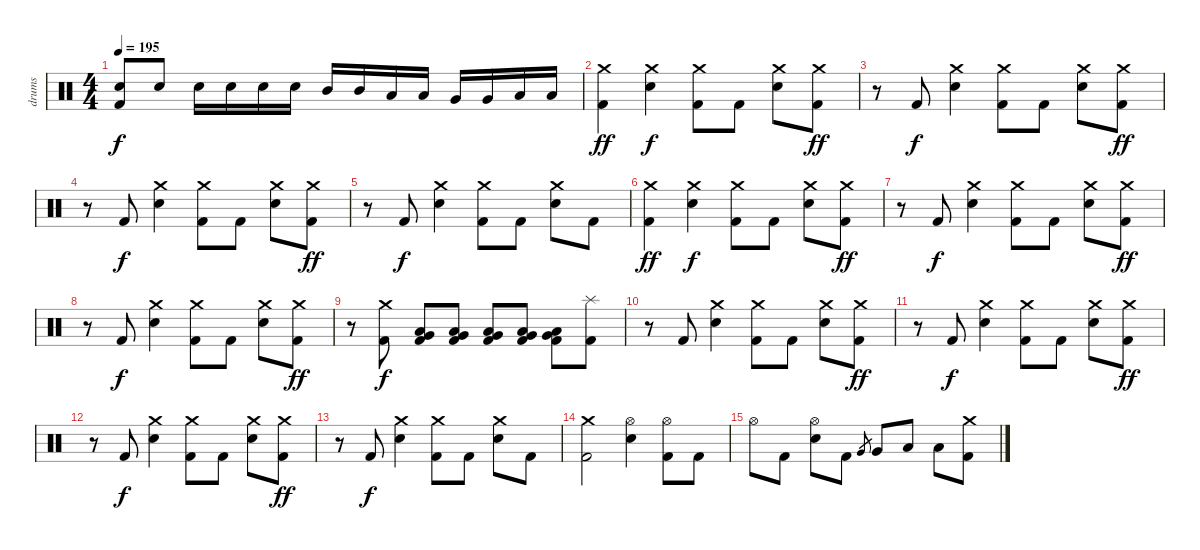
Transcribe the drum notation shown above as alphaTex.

\track ("drums" "drums") {instrument percussion}
\staff {score}
\articulation defaults
\ts (4 4)
\tempo 195
\clef neutral
\ks c
("Electric Snare (hit)" "Kick (hit) 2").8{dy f} "Electric Snare (hit)".8 "Electric Snare (hit)".16 "Electric Snare (hit)".16 "Electric Snare (hit)".16 "Electric Snare (hit)".16 "Mid Tom (hit)".16 "Mid Tom (hit)".16 "Low Tom (hit)".16 "Low Tom (hit)".16 "Very Low Tom (hit)".16 "Very Low Tom (hit)".16 "Low Floor Tom (hit)".16 "Low Floor Tom (hit)".16 |
("Crash medium (hit)" "Kick (hit) 2").4{dy ff} ("Crash medium (hit)" "Electric Snare (hit)").4{dy f} ("Crash medium (hit)" "Kick (hit) 2").8 "Kick (hit) 2".8 ("Crash medium (hit)" "Electric Snare (hit)").8 ("Crash medium (hit)" "Kick (hit) 2").8{dy ff} |
r.8 "Kick (hit) 2".8{dy f} ("Crash medium (hit)" "Electric Snare (hit)").4 ("Crash medium (hit)" "Kick (hit) 2").8 "Kick (hit) 2".8 ("Crash medium (hit)" "Electric Snare (hit)").8 ("Crash medium (hit)" "Kick (hit) 2").8{dy ff} |
r.8 "Kick (hit) 2".8{dy f} ("Crash medium (hit)" "Electric Snare (hit)").4 ("Crash medium (hit)" "Kick (hit) 2").8 "Kick (hit) 2".8 ("Crash medium (hit)" "Electric Snare (hit)").8 ("Crash medium (hit)" "Kick (hit) 2").8{dy ff} |
r.8 "Kick (hit) 2".8{dy f} ("Crash medium (hit)" "Electric Snare (hit)").4 ("Crash medium (hit)" "Kick (hit) 2").8 "Kick (hit) 2".8 ("Crash medium (hit)" "Electric Snare (hit)").8 "Kick (hit) 2".8 |
("Crash medium (hit)" "Kick (hit) 2").4{dy ff} ("Crash medium (hit)" "Electric Snare (hit)").4{dy f} ("Crash medium (hit)" "Kick (hit) 2").8 "Kick (hit) 2".8 ("Crash medium (hit)" "Electric Snare (hit)").8 ("Crash medium (hit)" "Kick (hit) 2").8{dy ff} |
r.8 "Kick (hit) 2".8{dy f} ("Crash medium (hit)" "Electric Snare (hit)").4 ("Crash medium (hit)" "Kick (hit) 2").8 "Kick (hit) 2".8 ("Crash medium (hit)" "Electric Snare (hit)").8 ("Crash medium (hit)" "Kick (hit) 2").8{dy ff} |
r.8 "Kick (hit) 2".8{dy f} ("Crash medium (hit)" "Electric Snare (hit)").4 ("Crash medium (hit)" "Kick (hit) 2").8 "Kick (hit) 2".8 ("Crash medium (hit)" "Electric Snare (hit)").8 ("Crash medium (hit)" "Kick (hit) 2").8{dy ff} |
r.8 ("Crash medium (hit)" "Kick (hit) 2").8{dy f} ("Low Floor Tom (hit)" "Very Low Tom (hit)" "Kick (hit) 2").8 ("Low Floor Tom (hit)" "Very Low Tom (hit)" "Kick (hit) 2").8 ("Low Floor Tom (hit)" "Very Low Tom (hit)" "Kick (hit) 2").8 ("Low Floor Tom (hit)" "Very Low Tom (hit)" "Kick (hit) 2").8 ("Low Floor Tom (hit)" "Very Low Tom (hit)" "Kick (hit) 2").8 ("Splash (hit)" "Kick (hit) 2").8 |
r.8 "Kick (hit) 2".8 ("Crash medium (hit)" "Electric Snare (hit)").4 ("Crash medium (hit)" "Kick (hit) 2").8 "Kick (hit) 2".8 ("Crash medium (hit)" "Electric Snare (hit)").8 ("Crash medium (hit)" "Kick (hit) 2").8{dy ff} |
r.8 "Kick (hit) 2".8{dy f} ("Crash medium (hit)" "Electric Snare (hit)").4 ("Crash medium (hit)" "Kick (hit) 2").8 "Kick (hit) 2".8 ("Crash medium (hit)" "Electric Snare (hit)").8 ("Crash medium (hit)" "Kick (hit) 2").8{dy ff} |
r.8 "Kick (hit) 2".8{dy f} ("Crash medium (hit)" "Electric Snare (hit)").4 ("Crash medium (hit)" "Kick (hit) 2").8 "Kick (hit) 2".8 ("Crash medium (hit)" "Electric Snare (hit)").8 ("Crash medium (hit)" "Kick (hit) 2").8{dy ff} |
r.8 "Kick (hit) 2".8{dy f} ("Crash medium (hit)" "Electric Snare (hit)").4 ("Crash medium (hit)" "Kick (hit) 2").8 "Kick (hit) 2".8 ("Crash medium (hit)" "Electric Snare (hit)").8 "Kick (hit) 2".8 |
("Crash medium (hit)" "Kick (hit) 2").2 ("Hi-Hat (open)" "Electric Snare (hit)").4 ("Hi-Hat (open)" "Kick (hit) 2").8 "Kick (hit) 2".8 |
"Hi-Hat (open)".8 "Kick (hit) 2".8 ("Hi-Hat (open)" "Electric Snare (hit)").8 "Kick (hit) 2".8 "Very Low Tom (hit)".8{gr} "Very Low Tom (hit)".8 "Low Floor Tom (hit)".8 "Low Floor Tom (hit)".8 ("Crash medium (hit)" "Kick (hit) 2").8
